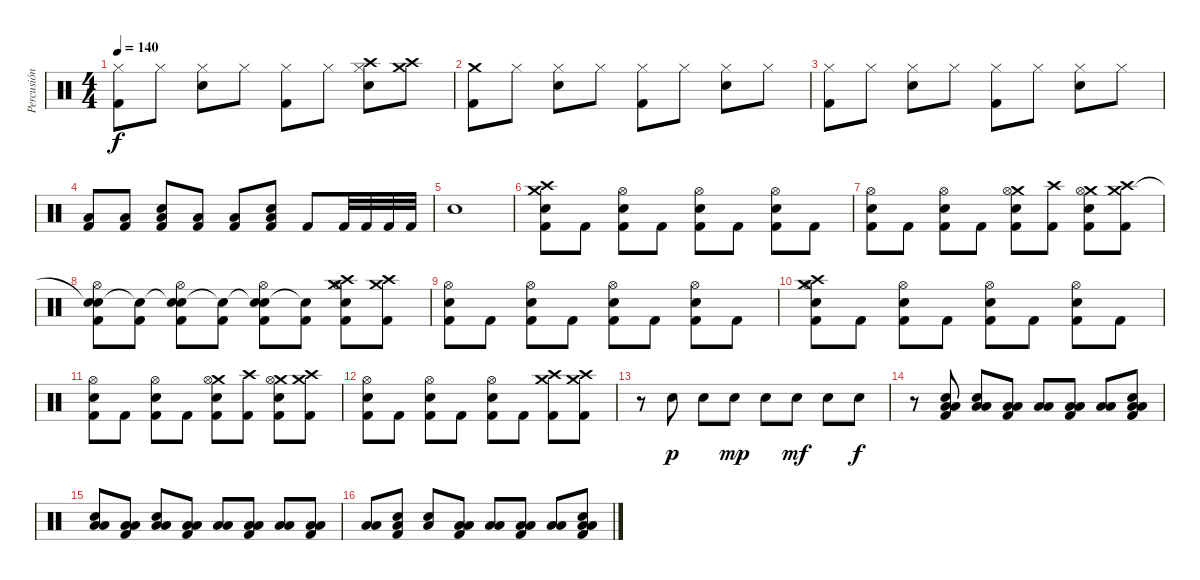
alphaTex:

\track ("Percusión" "Percusión") {instrument percussion}
\staff {score}
\articulation defaults
\ts (4 4)
\tempo 140
\clef neutral
\ks c
("Hi-Hat (closed)" "Kick (hit) 2").8{dy f} "Hi-Hat (closed)".8 ("Hi-Hat (closed)" "Snare (hit) 2").8 "Hi-Hat (closed)".8 ("Hi-Hat (closed)" "Kick (hit) 2").8 "Hi-Hat (closed)".8 ("Crash high (hit)" "Hi-Hat (closed)" "Snare (hit) 2").8 ("Crash medium (hit)" "Crash high (hit)").8 |
("Crash medium (hit)" "Kick (hit) 2").8 "Hi-Hat (closed)".8 ("Hi-Hat (closed)" "Snare (hit) 2").8 "Hi-Hat (closed)".8 ("Hi-Hat (closed)" "Kick (hit) 2").8 "Hi-Hat (closed)".8 ("Hi-Hat (closed)" "Snare (hit) 2").8 "Hi-Hat (closed)".8 |
("Hi-Hat (closed)" "Kick (hit) 2").8 "Hi-Hat (closed)".8 ("Hi-Hat (closed)" "Snare (hit) 2").8 "Hi-Hat (closed)".8 ("Hi-Hat (closed)" "Kick (hit) 2").8 "Hi-Hat (closed)".8 ("Hi-Hat (closed)" "Snare (hit) 2").8 "Hi-Hat (closed)".8 |
("Low Floor Tom (hit)" "Kick (hit) 2").8 ("Low Floor Tom (hit)" "Kick (hit) 2").8 ("Low Floor Tom (hit)" "Snare (hit) 2" "Kick (hit) 2").8 ("Low Floor Tom (hit)" "Kick (hit) 2").8 ("Low Floor Tom (hit)" "Kick (hit) 2").8 ("Low Floor Tom (hit)" "Snare (hit) 2" "Kick (hit) 2").8 "Kick (hit) 2".8 "Kick (hit) 2".32 "Kick (hit) 2".32 "Kick (hit) 2".32 "Kick (hit) 2".32 |
"Snare (hit) 2".1 |
("Crash high (hit)" "Snare (hit) 2" "Crash medium (hit)" "Kick (hit) 2").8 "Kick (hit) 2".8 ("Snare (hit) 2" "Hi-Hat (open)" "Kick (hit) 2").8 "Kick (hit) 2".8 ("Snare (hit) 2" "Hi-Hat (open)" "Kick (hit) 2").8 "Kick (hit) 2".8 ("Snare (hit) 2" "Hi-Hat (open)" "Kick (hit) 2").8 "Kick (hit) 2".8 |
("Snare (hit) 2" "Hi-Hat (open)" "Kick (hit) 2").8 "Kick (hit) 2".8 ("Snare (hit) 2" "Hi-Hat (open)" "Kick (hit) 2").8 "Kick (hit) 2".8 ("Crash medium (hit)" "Snare (hit) 2" "Hi-Hat (open)" "Kick (hit) 2").8 ("Crash high (hit)" "Kick (hit) 2").8 ("Crash medium (hit)" "Snare (hit) 2" "Hi-Hat (open)" "Kick (hit) 2").8 ("Crash medium (hit)" "Crash high (hit)" "Kick (hit) 2").8 |
("Snare (hit)"{t} "Snare (hit) 2" "Hi-Hat (open)" "Kick (hit) 2").8 ("Snare (hit)"{t} "Kick (hit) 2").8 ("Snare (hit)"{t} "Snare (hit) 2" "Hi-Hat (open)" "Kick (hit) 2").8 ("Snare (hit)"{t} "Kick (hit) 2").8 ("Snare (hit)"{t} "Snare (hit) 2" "Hi-Hat (open)" "Kick (hit) 2").8 ("Snare (hit)"{t} "Kick (hit) 2").8 ("Crash high (hit)" "Crash medium (hit)" "Snare (hit) 2" "Hi-Hat (open)" "Kick (hit) 2").8 ("Crash high (hit)" "Crash medium (hit)" "Kick (hit) 2").8 |
("Snare (hit) 2" "Hi-Hat (open)" "Kick (hit) 2").8 "Kick (hit) 2".8 ("Snare (hit) 2" "Hi-Hat (open)" "Kick (hit) 2").8 "Kick (hit) 2".8 ("Snare (hit) 2" "Hi-Hat (open)" "Kick (hit) 2").8 "Kick (hit) 2".8 ("Snare (hit) 2" "Hi-Hat (open)" "Kick (hit) 2").8 "Kick (hit) 2".8 |
("Crash medium (hit)" "Crash high (hit)" "Snare (hit) 2" "Hi-Hat (open)" "Kick (hit) 2").8 "Kick (hit) 2".8 ("Snare (hit) 2" "Hi-Hat (open)" "Kick (hit) 2").8 "Kick (hit) 2".8 ("Snare (hit) 2" "Hi-Hat (open)" "Kick (hit) 2").8 "Kick (hit) 2".8 ("Snare (hit) 2" "Hi-Hat (open)" "Kick (hit) 2").8 "Kick (hit) 2".8 |
("Snare (hit) 2" "Hi-Hat (open)" "Kick (hit) 2").8 "Kick (hit) 2".8 ("Snare (hit) 2" "Hi-Hat (open)" "Kick (hit) 2").8 "Kick (hit) 2".8 ("Crash medium (hit)" "Snare (hit) 2" "Hi-Hat (open)" "Kick (hit) 2").8 ("Crash high (hit)" "Kick (hit) 2").8 ("Crash medium (hit)" "Snare (hit) 2" "Hi-Hat (open)" "Kick (hit) 2").8 ("Crash medium (hit)" "Crash high (hit)" "Kick (hit) 2").8 |
("Snare (hit) 2" "Hi-Hat (open)" "Kick (hit) 2").8 "Kick (hit) 2".8 ("Snare (hit) 2" "Hi-Hat (open)" "Kick (hit) 2").8 "Kick (hit) 2".8 ("Snare (hit) 2" "Hi-Hat (open)" "Kick (hit) 2").8 "Kick (hit) 2".8 ("Crash medium (hit)" "Crash high (hit)" "Kick (hit) 2").8 ("Crash medium (hit)" "Crash high (hit)" "Kick (hit) 2").8 |
r.8 "Snare (hit) 2".8{dy p} "Snare (hit) 2".8 "Snare (hit) 2".8{dy mp} "Snare (hit) 2".8 "Snare (hit) 2".8{dy mf} "Snare (hit) 2".8 "Snare (hit) 2".8{dy f} |
r.8 ("Snare (hit) 2" "Low Floor Tom (hit)" "Low Floor Tom (hit)" "Kick (hit) 2").8 ("Snare (hit) 2" "Low Floor Tom (hit)" "Low Floor Tom (hit)").8 ("Low Floor Tom (hit)" "Low Floor Tom (hit)" "Kick (hit) 2").8 ("Low Floor Tom (hit)" "Low Floor Tom (hit)").8 ("Low Floor Tom (hit)" "Low Floor Tom (hit)" "Kick (hit) 2").8 ("Low Floor Tom (hit)" "Low Floor Tom (hit)").8 ("Snare (hit) 2" "Low Floor Tom (hit)" "Low Floor Tom (hit)" "Kick (hit) 2").8 |
("Snare (hit) 2" "Low Floor Tom (hit)" "Low Floor Tom (hit)").8 ("Low Floor Tom (hit)" "Low Floor Tom (hit)" "Kick (hit) 2").8 ("Snare (hit) 2" "Low Floor Tom (hit)" "Low Floor Tom (hit)").8 ("Low Floor Tom (hit)" "Low Floor Tom (hit)" "Kick (hit) 2").8 ("Low Floor Tom (hit)" "Low Floor Tom (hit)").8 ("Low Floor Tom (hit)" "Low Floor Tom (hit)" "Kick (hit) 2").8 ("Low Floor Tom (hit)" "Low Floor Tom (hit)").8 ("Low Floor Tom (hit)" "Low Floor Tom (hit)" "Kick (hit) 2").8 |
("Low Floor Tom (hit)" "Low Floor Tom (hit)").8 ("Snare (hit) 2" "Low Floor Tom (hit)" "Kick (hit) 2").8 ("Snare (hit) 2" "Low Floor Tom (hit)").8 ("Low Floor Tom (hit)" "Low Floor Tom (hit)" "Kick (hit) 2").8 ("Low Floor Tom (hit)" "Low Floor Tom (hit)").8 ("Low Floor Tom (hit)" "Low Floor Tom (hit)" "Kick (hit) 2").8 ("Low Floor Tom (hit)" "Low Floor Tom (hit)").8 ("Snare (hit) 2" "Low Floor Tom (hit)" "Low Floor Tom (hit)" "Kick (hit) 2").8
